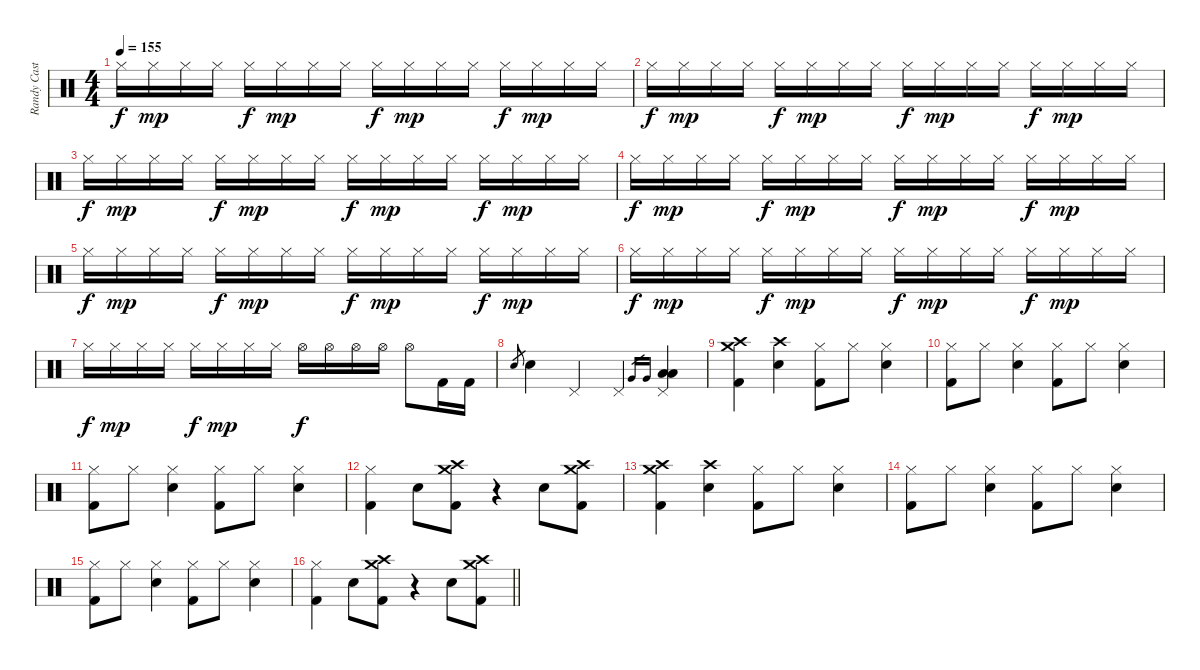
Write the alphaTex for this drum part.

\track ("Randy Castillo - Drums" "Randy Cast") {instrument percussion}
\staff {score}
\articulation defaults
\ts (4 4)
\tempo 155
\clef neutral
\ks c "Hi-Hat (closed)".16{dy f} "Hi-Hat (closed)".16{dy mp} "Hi-Hat (closed)".16 "Hi-Hat (closed)".16 "Hi-Hat (closed)".16{dy f} "Hi-Hat (closed)".16{dy mp} "Hi-Hat (closed)".16 "Hi-Hat (closed)".16 "Hi-Hat (closed)".16{dy f} "Hi-Hat (closed)".16{dy mp} "Hi-Hat (closed)".16 "Hi-Hat (closed)".16 "Hi-Hat (closed)".16{dy f} "Hi-Hat (closed)".16{dy mp} "Hi-Hat (closed)".16 "Hi-Hat (closed)".16
|
"Hi-Hat (closed)".16{dy f} "Hi-Hat (closed)".16{dy mp} "Hi-Hat (closed)".16 "Hi-Hat (closed)".16 "Hi-Hat (closed)".16{dy f} "Hi-Hat (closed)".16{dy mp} "Hi-Hat (closed)".16 "Hi-Hat (closed)".16 "Hi-Hat (closed)".16{dy f} "Hi-Hat (closed)".16{dy mp} "Hi-Hat (closed)".16 "Hi-Hat (closed)".16 "Hi-Hat (closed)".16{dy f} "Hi-Hat (closed)".16{dy mp} "Hi-Hat (closed)".16 "Hi-Hat (closed)".16 |
"Hi-Hat (closed)".16{dy f} "Hi-Hat (closed)".16{dy mp} "Hi-Hat (closed)".16 "Hi-Hat (closed)".16 "Hi-Hat (closed)".16{dy f} "Hi-Hat (closed)".16{dy mp} "Hi-Hat (closed)".16 "Hi-Hat (closed)".16 "Hi-Hat (closed)".16{dy f} "Hi-Hat (closed)".16{dy mp} "Hi-Hat (closed)".16 "Hi-Hat (closed)".16 "Hi-Hat (closed)".16{dy f} "Hi-Hat (closed)".16{dy mp} "Hi-Hat (closed)".16 "Hi-Hat (closed)".16 |
"Hi-Hat (closed)".16{dy f} "Hi-Hat (closed)".16{dy mp} "Hi-Hat (closed)".16 "Hi-Hat (closed)".16 "Hi-Hat (closed)".16{dy f} "Hi-Hat (closed)".16{dy mp} "Hi-Hat (closed)".16 "Hi-Hat (closed)".16 "Hi-Hat (closed)".16{dy f} "Hi-Hat (closed)".16{dy mp} "Hi-Hat (closed)".16 "Hi-Hat (closed)".16 "Hi-Hat (closed)".16{dy f} "Hi-Hat (closed)".16{dy mp} "Hi-Hat (closed)".16 "Hi-Hat (closed)".16 |
"Hi-Hat (closed)".16{dy f} "Hi-Hat (closed)".16{dy mp} "Hi-Hat (closed)".16 "Hi-Hat (closed)".16 "Hi-Hat (closed)".16{dy f} "Hi-Hat (closed)".16{dy mp} "Hi-Hat (closed)".16 "Hi-Hat (closed)".16 "Hi-Hat (closed)".16{dy f} "Hi-Hat (closed)".16{dy mp} "Hi-Hat (closed)".16 "Hi-Hat (closed)".16 "Hi-Hat (closed)".16{dy f} "Hi-Hat (closed)".16{dy mp} "Hi-Hat (closed)".16 "Hi-Hat (closed)".16 |
"Hi-Hat (closed)".16{dy f} "Hi-Hat (closed)".16{dy mp} "Hi-Hat (closed)".16 "Hi-Hat (closed)".16 "Hi-Hat (closed)".16{dy f} "Hi-Hat (closed)".16{dy mp} "Hi-Hat (closed)".16 "Hi-Hat (closed)".16 "Hi-Hat (closed)".16{dy f} "Hi-Hat (closed)".16{dy mp} "Hi-Hat (closed)".16 "Hi-Hat (closed)".16 "Hi-Hat (closed)".16{dy f} "Hi-Hat (closed)".16{dy mp} "Hi-Hat (closed)".16 "Hi-Hat (closed)".16 |
"Hi-Hat (closed)".16{dy f} "Hi-Hat (closed)".16{dy mp} "Hi-Hat (closed)".16 "Hi-Hat (closed)".16 "Hi-Hat (closed)".16{dy f} "Hi-Hat (closed)".16{dy mp} "Hi-Hat (closed)".16 "Hi-Hat (closed)".16 "Hi-Hat (open)".16{dy f} "Hi-Hat (open)".16 "Hi-Hat (open)".16 "Hi-Hat (open)".16 "Hi-Hat (open)".8 "Kick (hit) 2".16 "Kick (hit) 2".16 |
"Snare (hit) 2".8{gr} "Snare (hit) 2".4 "Pedal Hi-Hat (hit)".4 "Pedal Hi-Hat (hit)".4 "Very Low Tom (hit)".16{gr} "Very Low Tom (hit)".16{gr} ("Low Tom (hit)" "Low Tom (hit)" "Pedal Hi-Hat (hit)").4 |
("Crash medium (hit)" "Crash high (hit)" "Kick (hit) 2").4 ("Crash high (hit)" "Snare (hit) 2").4 ("Hi-Hat (closed)" "Kick (hit) 2").8 "Hi-Hat (closed)".8 ("Hi-Hat (closed)" "Snare (hit) 2").4 |
("Hi-Hat (closed)" "Kick (hit) 2").8 "Hi-Hat (closed)".8 ("Hi-Hat (closed)" "Snare (hit) 2").4 ("Hi-Hat (closed)" "Kick (hit) 2").8 "Hi-Hat (closed)".8 ("Hi-Hat (closed)" "Snare (hit) 2").4 |
("Hi-Hat (closed)" "Kick (hit) 2").8 "Hi-Hat (closed)".8 ("Hi-Hat (closed)" "Snare (hit) 2").4 ("Hi-Hat (closed)" "Kick (hit) 2").8 "Hi-Hat (closed)".8 ("Hi-Hat (closed)" "Snare (hit) 2").4 |
("Hi-Hat (closed)" "Kick (hit) 2").4 "Snare (hit) 2".8 ("Crash medium (hit)" "Crash high (hit)" "Kick (hit) 2").8 r.4 "Snare (hit) 2".8 ("Crash medium (hit)" "Crash high (hit)" "Kick (hit) 2").8 |
("Crash medium (hit)" "Crash high (hit)" "Kick (hit) 2").4 ("Crash high (hit)" "Snare (hit) 2").4 ("Hi-Hat (closed)" "Kick (hit) 2").8 "Hi-Hat (closed)".8 ("Hi-Hat (closed)" "Snare (hit) 2").4 |
("Hi-Hat (closed)" "Kick (hit) 2").8 "Hi-Hat (closed)".8 ("Hi-Hat (closed)" "Snare (hit) 2").4 ("Hi-Hat (closed)" "Kick (hit) 2").8 "Hi-Hat (closed)".8 ("Hi-Hat (closed)" "Snare (hit) 2").4 |
("Hi-Hat (closed)" "Kick (hit) 2").8 "Hi-Hat (closed)".8 ("Hi-Hat (closed)" "Snare (hit) 2").4 ("Hi-Hat (closed)" "Kick (hit) 2").8 "Hi-Hat (closed)".8 ("Hi-Hat (closed)" "Snare (hit) 2").4 |
\barLineRight lightlight
("Hi-Hat (closed)" "Kick (hit) 2").4 "Snare (hit) 2".8 ("Crash medium (hit)" "Crash high (hit)" "Kick (hit) 2").8 r.4 "Snare (hit) 2".8 ("Crash medium (hit)" "Crash high (hit)" "Kick (hit) 2").8
